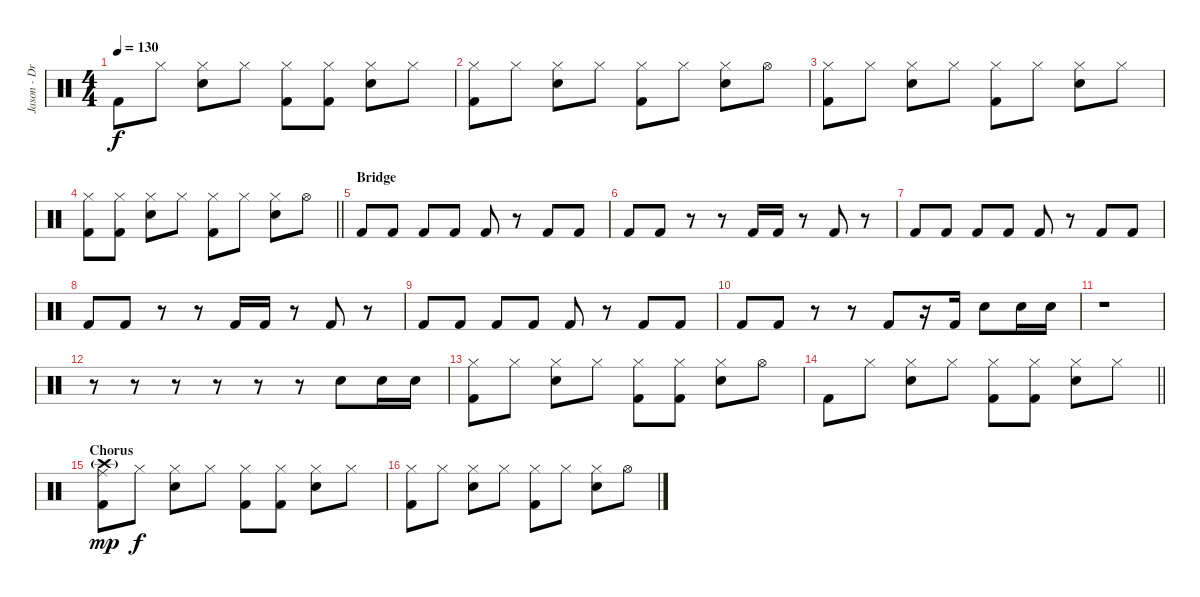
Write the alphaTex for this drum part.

\track ("Jason - Drums" "Jason - Dr") {instrument percussion}
\staff {score}
\articulation defaults
\ts (4 4)
\tempo 130
\clef neutral
\ks c "Kick (hit) 2".8{dy f} "Hi-Hat (closed)".8
("Hi-Hat (closed)" "Snare (hit) 2").8 "Hi-Hat (closed)".8 ("Hi-Hat (closed)" "Kick (hit) 2").8 ("Hi-Hat (closed)" "Kick (hit) 2").8 ("Hi-Hat (closed)" "Snare (hit) 2").8 "Hi-Hat (closed)".8 |
("Hi-Hat (closed)" "Kick (hit) 2").8 "Hi-Hat (closed)".8 ("Hi-Hat (closed)" "Snare (hit) 2").8 "Hi-Hat (closed)".8 ("Hi-Hat (closed)" "Kick (hit) 2").8 "Hi-Hat (closed)".8 ("Hi-Hat (closed)" "Snare (hit) 2").8 "Hi-Hat (open)".8 |
("Hi-Hat (closed)" "Kick (hit) 2").8 "Hi-Hat (closed)".8 ("Hi-Hat (closed)" "Snare (hit) 2").8 "Hi-Hat (closed)".8 ("Hi-Hat (closed)" "Kick (hit) 2").8 "Hi-Hat (closed)".8 ("Hi-Hat (closed)" "Snare (hit) 2").8 "Hi-Hat (closed)".8 |
\barLineRight lightlight
("Hi-Hat (closed)" "Kick (hit) 2").8 ("Hi-Hat (closed)" "Kick (hit) 2").8 ("Hi-Hat (closed)" "Snare (hit) 2").8 "Hi-Hat (closed)".8 ("Hi-Hat (closed)" "Kick (hit) 2").8 "Hi-Hat (closed)".8 ("Hi-Hat (closed)" "Snare (hit) 2").8 "Hi-Hat (open)".8 |
\section ("" "Bridge")
"Kick (hit) 2".8 "Kick (hit) 2".8 "Kick (hit) 2".8 "Kick (hit) 2".8 "Kick (hit) 2".8 r.8 "Kick (hit) 2".8 "Kick (hit) 2".8 |
"Kick (hit) 2".8 "Kick (hit) 2".8 r.8 r.8 "Kick (hit) 2".16 "Kick (hit) 2".16 r.8 "Kick (hit) 2".8 r.8 |
"Kick (hit) 2".8 "Kick (hit) 2".8 "Kick (hit) 2".8 "Kick (hit) 2".8 "Kick (hit) 2".8 r.8 "Kick (hit) 2".8 "Kick (hit) 2".8 |
"Kick (hit) 2".8 "Kick (hit) 2".8 r.8 r.8 "Kick (hit) 2".16 "Kick (hit) 2".16 r.8 "Kick (hit) 2".8 r.8 |
"Kick (hit) 2".8 "Kick (hit) 2".8 "Kick (hit) 2".8 "Kick (hit) 2".8 "Kick (hit) 2".8 r.8 "Kick (hit) 2".8 "Kick (hit) 2".8 |
"Kick (hit) 2".8 "Kick (hit) 2".8 r.8 r.8 "Kick (hit) 2".8 r.16 "Kick (hit) 2".16 "Snare (hit) 2".8 "Snare (hit) 2".16 "Snare (hit) 2".16 |
r.1 |
r.8 r.8 r.8 r.8 r.8 r.8 "Snare (hit) 2".8 "Snare (hit) 2".16 "Snare (hit) 2".16 |
("Hi-Hat (closed)" "Kick (hit) 2").8 "Hi-Hat (closed)".8 ("Hi-Hat (closed)" "Snare (hit) 2").8 "Hi-Hat (closed)".8 ("Hi-Hat (closed)" "Kick (hit) 2").8 ("Hi-Hat (closed)" "Kick (hit) 2").8 ("Hi-Hat (closed)" "Snare (hit) 2").8 "Hi-Hat (open)".8 |
\barLineRight lightlight "Kick (hit) 2".8 "Hi-Hat (closed)".8
("Hi-Hat (closed)" "Snare (hit) 2").8 "Hi-Hat (closed)".8 ("Hi-Hat (closed)" "Kick (hit) 2").8 ("Hi-Hat (closed)" "Kick (hit) 2").8 ("Hi-Hat (closed)" "Snare (hit) 2").8 "Hi-Hat (closed)".8 |
\section ("" "Chorus")
("Crash high (hit)"{g} "Ride (middle)" "Kick (hit) 2").8{dy mp} "Hi-Hat (closed)".8{dy f} ("Hi-Hat (closed)" "Snare (hit) 2").8 "Hi-Hat (closed)".8 ("Hi-Hat (closed)" "Kick (hit) 2").8 ("Hi-Hat (closed)" "Kick (hit) 2").8 ("Hi-Hat (closed)" "Snare (hit) 2").8 "Hi-Hat (closed)".8 |
("Hi-Hat (closed)" "Kick (hit) 2").8 "Hi-Hat (closed)".8 ("Hi-Hat (closed)" "Snare (hit) 2").8 "Hi-Hat (closed)".8 ("Hi-Hat (closed)" "Kick (hit) 2").8 "Hi-Hat (closed)".8 ("Hi-Hat (closed)" "Snare (hit) 2").8 "Hi-Hat (open)".8
